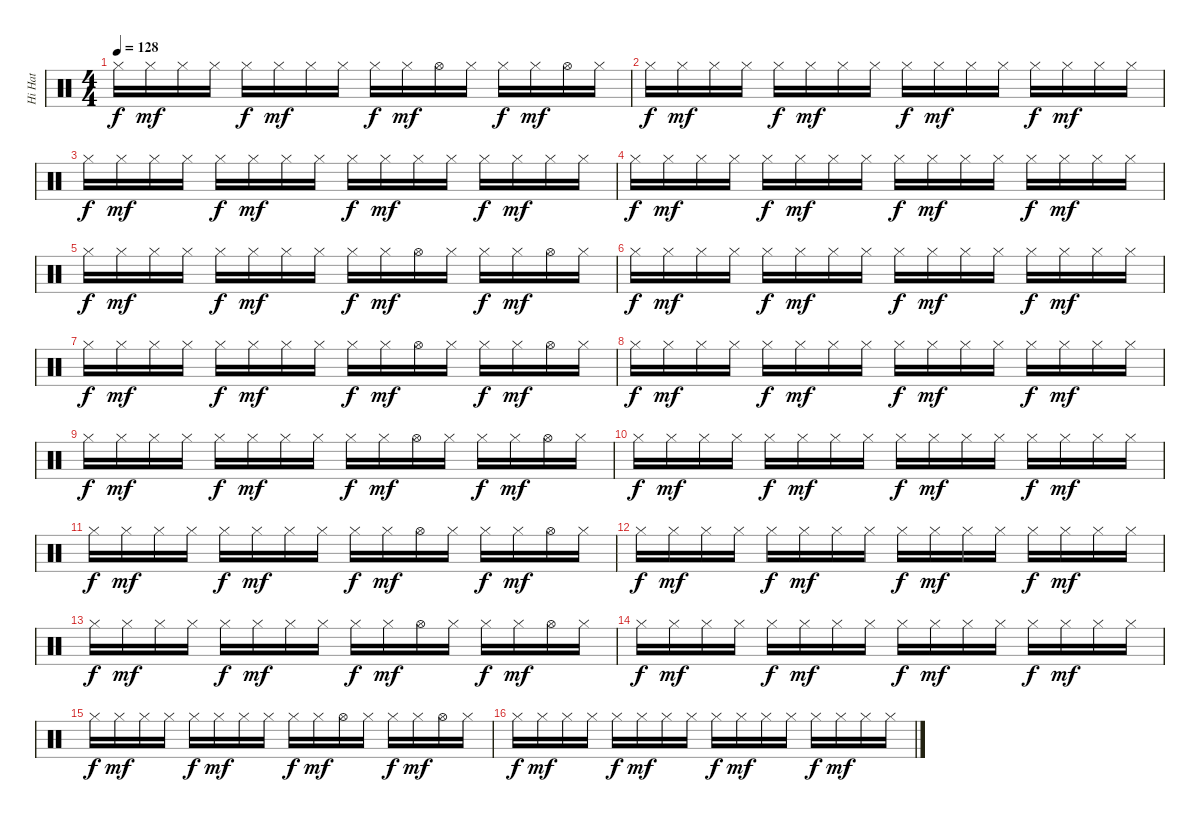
\track ("Hi Hat" "Hi Hat") {instrument percussion}
\staff {score}
\articulation defaults
\ts (4 4)
\tempo 128
\clef neutral
\ks c "Hi-Hat (closed)".16{dy f} "Hi-Hat (closed)".16{dy mf} "Hi-Hat (closed)".16 "Hi-Hat (closed)".16 "Hi-Hat (closed)".16{dy f} "Hi-Hat (closed)".16{dy mf} "Hi-Hat (closed)".16 "Hi-Hat (closed)".16 "Hi-Hat (closed)".16{dy f} "Hi-Hat (closed)".16{dy mf} "Hi-Hat (open)".16 "Hi-Hat (closed)".16 "Hi-Hat (closed)".16{dy f} "Hi-Hat (closed)".16{dy mf} "Hi-Hat (open)".16 "Hi-Hat (closed)".16
|
"Hi-Hat (closed)".16{dy f} "Hi-Hat (closed)".16{dy mf} "Hi-Hat (closed)".16 "Hi-Hat (closed)".16 "Hi-Hat (closed)".16{dy f} "Hi-Hat (closed)".16{dy mf} "Hi-Hat (closed)".16 "Hi-Hat (closed)".16 "Hi-Hat (closed)".16{dy f} "Hi-Hat (closed)".16{dy mf} "Hi-Hat (closed)".16 "Hi-Hat (closed)".16 "Hi-Hat (closed)".16{dy f} "Hi-Hat (closed)".16{dy mf} "Hi-Hat (closed)".16 "Hi-Hat (closed)".16 |
"Hi-Hat (closed)".16{dy f} "Hi-Hat (closed)".16{dy mf} "Hi-Hat (closed)".16 "Hi-Hat (closed)".16 "Hi-Hat (closed)".16{dy f} "Hi-Hat (closed)".16{dy mf} "Hi-Hat (closed)".16 "Hi-Hat (closed)".16 "Hi-Hat (closed)".16{dy f} "Hi-Hat (closed)".16{dy mf} "Hi-Hat (closed)".16 "Hi-Hat (closed)".16 "Hi-Hat (closed)".16{dy f} "Hi-Hat (closed)".16{dy mf} "Hi-Hat (closed)".16 "Hi-Hat (closed)".16 |
"Hi-Hat (closed)".16{dy f} "Hi-Hat (closed)".16{dy mf} "Hi-Hat (closed)".16 "Hi-Hat (closed)".16 "Hi-Hat (closed)".16{dy f} "Hi-Hat (closed)".16{dy mf} "Hi-Hat (closed)".16 "Hi-Hat (closed)".16 "Hi-Hat (closed)".16{dy f} "Hi-Hat (closed)".16{dy mf} "Hi-Hat (closed)".16 "Hi-Hat (closed)".16 "Hi-Hat (closed)".16{dy f} "Hi-Hat (closed)".16{dy mf} "Hi-Hat (closed)".16 "Hi-Hat (closed)".16 |
"Hi-Hat (closed)".16{dy f} "Hi-Hat (closed)".16{dy mf} "Hi-Hat (closed)".16 "Hi-Hat (closed)".16 "Hi-Hat (closed)".16{dy f} "Hi-Hat (closed)".16{dy mf} "Hi-Hat (closed)".16 "Hi-Hat (closed)".16 "Hi-Hat (closed)".16{dy f} "Hi-Hat (closed)".16{dy mf} "Hi-Hat (open)".16 "Hi-Hat (closed)".16 "Hi-Hat (closed)".16{dy f} "Hi-Hat (closed)".16{dy mf} "Hi-Hat (open)".16 "Hi-Hat (closed)".16 |
"Hi-Hat (closed)".16{dy f} "Hi-Hat (closed)".16{dy mf} "Hi-Hat (closed)".16 "Hi-Hat (closed)".16 "Hi-Hat (closed)".16{dy f} "Hi-Hat (closed)".16{dy mf} "Hi-Hat (closed)".16 "Hi-Hat (closed)".16 "Hi-Hat (closed)".16{dy f} "Hi-Hat (closed)".16{dy mf} "Hi-Hat (closed)".16 "Hi-Hat (closed)".16 "Hi-Hat (closed)".16{dy f} "Hi-Hat (closed)".16{dy mf} "Hi-Hat (closed)".16 "Hi-Hat (closed)".16 |
"Hi-Hat (closed)".16{dy f} "Hi-Hat (closed)".16{dy mf} "Hi-Hat (closed)".16 "Hi-Hat (closed)".16 "Hi-Hat (closed)".16{dy f} "Hi-Hat (closed)".16{dy mf} "Hi-Hat (closed)".16 "Hi-Hat (closed)".16 "Hi-Hat (closed)".16{dy f} "Hi-Hat (closed)".16{dy mf} "Hi-Hat (open)".16 "Hi-Hat (closed)".16 "Hi-Hat (closed)".16{dy f} "Hi-Hat (closed)".16{dy mf} "Hi-Hat (open)".16 "Hi-Hat (closed)".16 |
"Hi-Hat (closed)".16{dy f} "Hi-Hat (closed)".16{dy mf} "Hi-Hat (closed)".16 "Hi-Hat (closed)".16 "Hi-Hat (closed)".16{dy f} "Hi-Hat (closed)".16{dy mf} "Hi-Hat (closed)".16 "Hi-Hat (closed)".16 "Hi-Hat (closed)".16{dy f} "Hi-Hat (closed)".16{dy mf} "Hi-Hat (closed)".16 "Hi-Hat (closed)".16 "Hi-Hat (closed)".16{dy f} "Hi-Hat (closed)".16{dy mf} "Hi-Hat (closed)".16 "Hi-Hat (closed)".16 |
"Hi-Hat (closed)".16{dy f} "Hi-Hat (closed)".16{dy mf} "Hi-Hat (closed)".16 "Hi-Hat (closed)".16 "Hi-Hat (closed)".16{dy f} "Hi-Hat (closed)".16{dy mf} "Hi-Hat (closed)".16 "Hi-Hat (closed)".16 "Hi-Hat (closed)".16{dy f} "Hi-Hat (closed)".16{dy mf} "Hi-Hat (open)".16 "Hi-Hat (closed)".16 "Hi-Hat (closed)".16{dy f} "Hi-Hat (closed)".16{dy mf} "Hi-Hat (open)".16 "Hi-Hat (closed)".16 |
"Hi-Hat (closed)".16{dy f} "Hi-Hat (closed)".16{dy mf} "Hi-Hat (closed)".16 "Hi-Hat (closed)".16 "Hi-Hat (closed)".16{dy f} "Hi-Hat (closed)".16{dy mf} "Hi-Hat (closed)".16 "Hi-Hat (closed)".16 "Hi-Hat (closed)".16{dy f} "Hi-Hat (closed)".16{dy mf} "Hi-Hat (closed)".16 "Hi-Hat (closed)".16 "Hi-Hat (closed)".16{dy f} "Hi-Hat (closed)".16{dy mf} "Hi-Hat (closed)".16 "Hi-Hat (closed)".16 |
"Hi-Hat (closed)".16{dy f} "Hi-Hat (closed)".16{dy mf} "Hi-Hat (closed)".16 "Hi-Hat (closed)".16 "Hi-Hat (closed)".16{dy f} "Hi-Hat (closed)".16{dy mf} "Hi-Hat (closed)".16 "Hi-Hat (closed)".16 "Hi-Hat (closed)".16{dy f} "Hi-Hat (closed)".16{dy mf} "Hi-Hat (open)".16 "Hi-Hat (closed)".16 "Hi-Hat (closed)".16{dy f} "Hi-Hat (closed)".16{dy mf} "Hi-Hat (open)".16 "Hi-Hat (closed)".16 |
"Hi-Hat (closed)".16{dy f} "Hi-Hat (closed)".16{dy mf} "Hi-Hat (closed)".16 "Hi-Hat (closed)".16 "Hi-Hat (closed)".16{dy f} "Hi-Hat (closed)".16{dy mf} "Hi-Hat (closed)".16 "Hi-Hat (closed)".16 "Hi-Hat (closed)".16{dy f} "Hi-Hat (closed)".16{dy mf} "Hi-Hat (closed)".16 "Hi-Hat (closed)".16 "Hi-Hat (closed)".16{dy f} "Hi-Hat (closed)".16{dy mf} "Hi-Hat (closed)".16 "Hi-Hat (closed)".16 |
"Hi-Hat (closed)".16{dy f} "Hi-Hat (closed)".16{dy mf} "Hi-Hat (closed)".16 "Hi-Hat (closed)".16 "Hi-Hat (closed)".16{dy f} "Hi-Hat (closed)".16{dy mf} "Hi-Hat (closed)".16 "Hi-Hat (closed)".16 "Hi-Hat (closed)".16{dy f} "Hi-Hat (closed)".16{dy mf} "Hi-Hat (open)".16 "Hi-Hat (closed)".16 "Hi-Hat (closed)".16{dy f} "Hi-Hat (closed)".16{dy mf} "Hi-Hat (open)".16 "Hi-Hat (closed)".16 |
"Hi-Hat (closed)".16{dy f} "Hi-Hat (closed)".16{dy mf} "Hi-Hat (closed)".16 "Hi-Hat (closed)".16 "Hi-Hat (closed)".16{dy f} "Hi-Hat (closed)".16{dy mf} "Hi-Hat (closed)".16 "Hi-Hat (closed)".16 "Hi-Hat (closed)".16{dy f} "Hi-Hat (closed)".16{dy mf} "Hi-Hat (closed)".16 "Hi-Hat (closed)".16 "Hi-Hat (closed)".16{dy f} "Hi-Hat (closed)".16{dy mf} "Hi-Hat (closed)".16 "Hi-Hat (closed)".16 |
"Hi-Hat (closed)".16{dy f} "Hi-Hat (closed)".16{dy mf} "Hi-Hat (closed)".16 "Hi-Hat (closed)".16 "Hi-Hat (closed)".16{dy f} "Hi-Hat (closed)".16{dy mf} "Hi-Hat (closed)".16 "Hi-Hat (closed)".16 "Hi-Hat (closed)".16{dy f} "Hi-Hat (closed)".16{dy mf} "Hi-Hat (open)".16 "Hi-Hat (closed)".16 "Hi-Hat (closed)".16{dy f} "Hi-Hat (closed)".16{dy mf} "Hi-Hat (open)".16 "Hi-Hat (closed)".16 |
"Hi-Hat (closed)".16{dy f} "Hi-Hat (closed)".16{dy mf} "Hi-Hat (closed)".16 "Hi-Hat (closed)".16 "Hi-Hat (closed)".16{dy f} "Hi-Hat (closed)".16{dy mf} "Hi-Hat (closed)".16 "Hi-Hat (closed)".16 "Hi-Hat (closed)".16{dy f} "Hi-Hat (closed)".16{dy mf} "Hi-Hat (closed)".16 "Hi-Hat (closed)".16 "Hi-Hat (closed)".16{dy f} "Hi-Hat (closed)".16{dy mf} "Hi-Hat (closed)".16 "Hi-Hat (closed)".16
